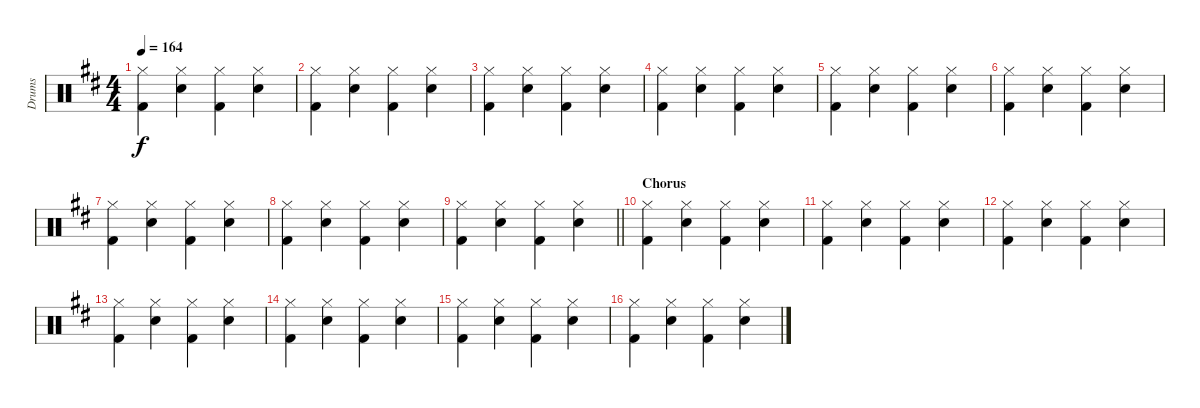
\track ("Drums" "Drums") {instrument percussion}
\staff {score}
\articulation defaults
\ts (4 4)
\tempo 164
\clef neutral
\ks d
("Hi-Hat (closed)" "Kick (hit) 2").4{dy f} ("Hi-Hat (closed)" "Snare (hit) 2").4 ("Hi-Hat (closed)" "Kick (hit) 2").4 ("Hi-Hat (closed)" "Snare (hit) 2").4 |
("Hi-Hat (closed)" "Kick (hit) 2").4 ("Hi-Hat (closed)" "Snare (hit) 2").4 ("Hi-Hat (closed)" "Kick (hit) 2").4 ("Hi-Hat (closed)" "Snare (hit) 2").4 |
("Hi-Hat (closed)" "Kick (hit) 2").4 ("Hi-Hat (closed)" "Snare (hit) 2").4 ("Hi-Hat (closed)" "Kick (hit) 2").4 ("Hi-Hat (closed)" "Snare (hit) 2").4 |
("Hi-Hat (closed)" "Kick (hit) 2").4 ("Hi-Hat (closed)" "Snare (hit) 2").4 ("Hi-Hat (closed)" "Kick (hit) 2").4 ("Hi-Hat (closed)" "Snare (hit) 2").4 |
("Hi-Hat (closed)" "Kick (hit) 2").4 ("Hi-Hat (closed)" "Snare (hit) 2").4 ("Hi-Hat (closed)" "Kick (hit) 2").4 ("Hi-Hat (closed)" "Snare (hit) 2").4 |
("Hi-Hat (closed)" "Kick (hit) 2").4 ("Hi-Hat (closed)" "Snare (hit) 2").4 ("Hi-Hat (closed)" "Kick (hit) 2").4 ("Hi-Hat (closed)" "Snare (hit) 2").4 |
("Hi-Hat (closed)" "Kick (hit) 2").4 ("Hi-Hat (closed)" "Snare (hit) 2").4 ("Hi-Hat (closed)" "Kick (hit) 2").4 ("Hi-Hat (closed)" "Snare (hit) 2").4 |
("Hi-Hat (closed)" "Kick (hit) 2").4 ("Hi-Hat (closed)" "Snare (hit) 2").4 ("Hi-Hat (closed)" "Kick (hit) 2").4 ("Hi-Hat (closed)" "Snare (hit) 2").4 |
\barLineRight lightlight
("Hi-Hat (closed)" "Kick (hit) 2").4 ("Hi-Hat (closed)" "Snare (hit) 2").4 ("Hi-Hat (closed)" "Kick (hit) 2").4 ("Hi-Hat (closed)" "Snare (hit) 2").4 |
\section ("" "Chorus")
("Hi-Hat (closed)" "Kick (hit) 2").4 ("Hi-Hat (closed)" "Snare (hit) 2").4 ("Hi-Hat (closed)" "Kick (hit) 2").4 ("Hi-Hat (closed)" "Snare (hit) 2").4 |
("Hi-Hat (closed)" "Kick (hit) 2").4 ("Hi-Hat (closed)" "Snare (hit) 2").4 ("Hi-Hat (closed)" "Kick (hit) 2").4 ("Hi-Hat (closed)" "Snare (hit) 2").4 |
("Hi-Hat (closed)" "Kick (hit) 2").4 ("Hi-Hat (closed)" "Snare (hit) 2").4 ("Hi-Hat (closed)" "Kick (hit) 2").4 ("Hi-Hat (closed)" "Snare (hit) 2").4 |
("Hi-Hat (closed)" "Kick (hit) 2").4 ("Hi-Hat (closed)" "Snare (hit) 2").4 ("Hi-Hat (closed)" "Kick (hit) 2").4 ("Hi-Hat (closed)" "Snare (hit) 2").4 |
("Hi-Hat (closed)" "Kick (hit) 2").4 ("Hi-Hat (closed)" "Snare (hit) 2").4 ("Hi-Hat (closed)" "Kick (hit) 2").4 ("Hi-Hat (closed)" "Snare (hit) 2").4 |
("Hi-Hat (closed)" "Kick (hit) 2").4 ("Hi-Hat (closed)" "Snare (hit) 2").4 ("Hi-Hat (closed)" "Kick (hit) 2").4 ("Hi-Hat (closed)" "Snare (hit) 2").4 |
("Hi-Hat (closed)" "Kick (hit) 2").4 ("Hi-Hat (closed)" "Snare (hit) 2").4 ("Hi-Hat (closed)" "Kick (hit) 2").4 ("Hi-Hat (closed)" "Snare (hit) 2").4
